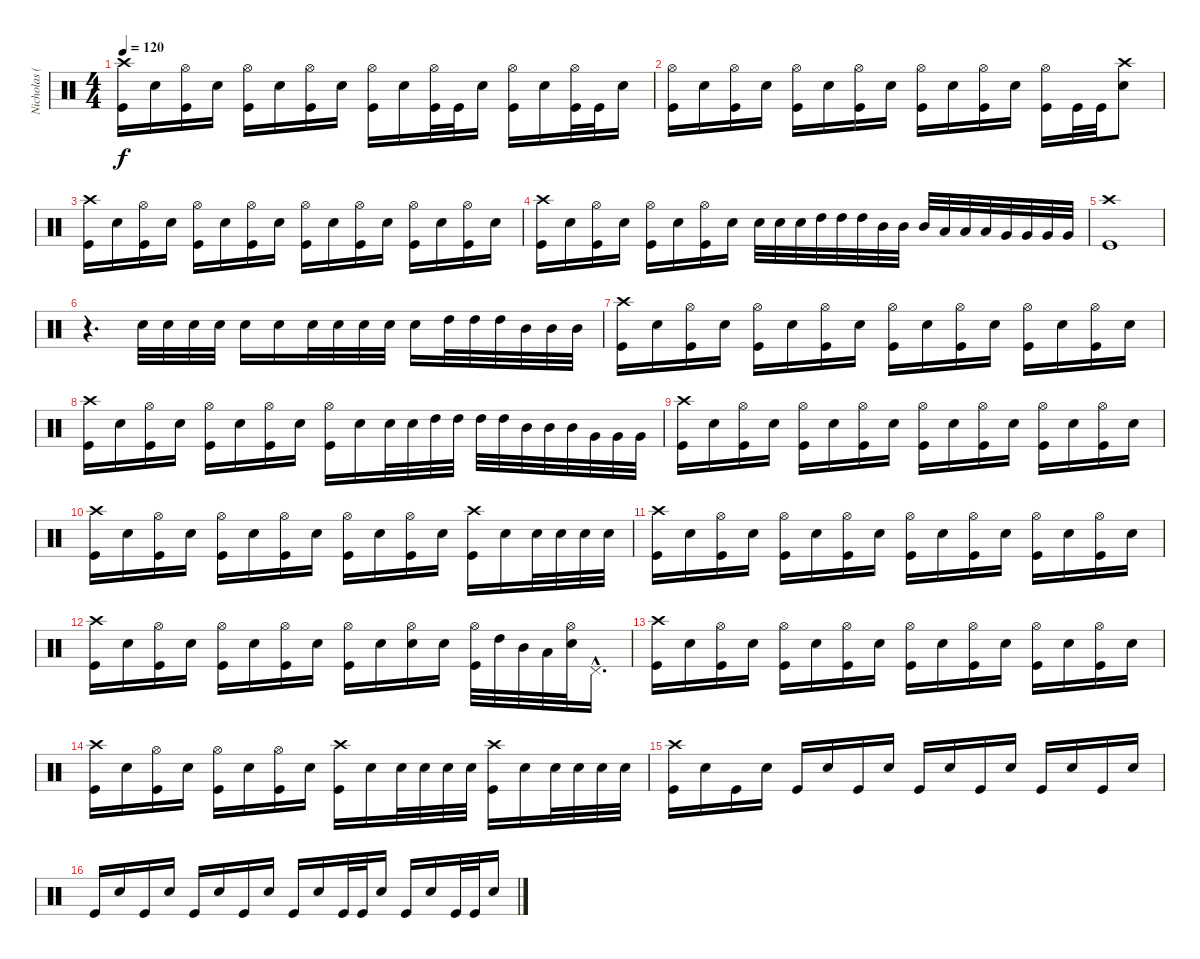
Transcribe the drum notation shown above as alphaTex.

\track ("Nicholas (Drums)" "Nicholas (") {instrument percussion}
\staff {score}
\articulation defaults
\ts (4 4)
\tempo 120
\clef neutral
\ks c
("Crash high (hit)" "Kick (hit)").16{dy f} "Electric Snare (hit)".16 ("Hi-Hat (open)" "Kick (hit)").16 "Electric Snare (hit)".16 ("Hi-Hat (open)" "Kick (hit)").16 "Electric Snare (hit)".16 ("Hi-Hat (open)" "Kick (hit)").16 "Electric Snare (hit)".16 ("Hi-Hat (open)" "Kick (hit)").16 "Electric Snare (hit)".16 ("Hi-Hat (open)" "Kick (hit)").32 "Kick (hit)".32 "Electric Snare (hit)".16 ("Hi-Hat (open)" "Kick (hit)").16 "Electric Snare (hit)".16 ("Hi-Hat (open)" "Kick (hit)").32 "Kick (hit)".32 "Electric Snare (hit)".16 |
("Hi-Hat (open)" "Kick (hit)").16 "Electric Snare (hit)".16 ("Hi-Hat (open)" "Kick (hit)").16 "Electric Snare (hit)".16 ("Hi-Hat (open)" "Kick (hit)").16 "Electric Snare (hit)".16 ("Hi-Hat (open)" "Kick (hit)").16 "Electric Snare (hit)".16 ("Hi-Hat (open)" "Kick (hit)").16 "Electric Snare (hit)".16 ("Hi-Hat (open)" "Kick (hit)").16 "Electric Snare (hit)".16 ("Hi-Hat (open)" "Kick (hit)").16 "Kick (hit)".32 "Kick (hit)".32 ("Crash high (hit)" "Electric Snare (hit)").8 |
("Crash high (hit)" "Kick (hit)").16 "Electric Snare (hit)".16 ("Hi-Hat (open)" "Kick (hit)").16 "Electric Snare (hit)".16 ("Hi-Hat (open)" "Kick (hit)").16 "Electric Snare (hit)".16 ("Hi-Hat (open)" "Kick (hit)").16 "Electric Snare (hit)".16 ("Hi-Hat (open)" "Kick (hit)").16 "Electric Snare (hit)".16 ("Hi-Hat (open)" "Kick (hit)").16 "Electric Snare (hit)".16 ("Hi-Hat (open)" "Kick (hit)").16 "Electric Snare (hit)".16 ("Hi-Hat (open)" "Kick (hit)").16 "Electric Snare (hit)".16 |
("Crash high (hit)" "Kick (hit)").16 "Electric Snare (hit)".16 ("Hi-Hat (open)" "Kick (hit)").16 "Electric Snare (hit)".16 ("Hi-Hat (open)" "Kick (hit)").16 "Electric Snare (hit)".16 ("Hi-Hat (open)" "Kick (hit)").16 "Electric Snare (hit)".16 "Electric Snare (hit)".32 "Electric Snare (hit)".32 "Electric Snare (hit)".32 "High Tom (hit)".32 "High Tom (hit)".32 "High Tom (hit)".32 "Mid Tom (hit)".32 "Mid Tom (hit)".32 "Mid Tom (hit)".32 "Low Tom (hit)".32 "Low Tom (hit)".32 "Low Tom (hit)".32 "Very Low Tom (hit)".32 "Very Low Tom (hit)".32 "Very Low Tom (hit)".32 "Very Low Tom (hit)".32 |
("Crash high (hit)" "Kick (hit)").1 |
r.4{d} "Electric Snare (hit)".32 "Electric Snare (hit)".32 "Electric Snare (hit)".32 "Electric Snare (hit)".32 "Electric Snare (hit)".16 "Electric Snare (hit)".16 "Electric Snare (hit)".32 "Electric Snare (hit)".32 "Electric Snare (hit)".32 "Electric Snare (hit)".32 "Electric Snare (hit)".16 "High Tom (hit)".32 "High Tom (hit)".32 "High Tom (hit)".32 "Mid Tom (hit)".32 "Mid Tom (hit)".32 "Mid Tom (hit)".32 |
("Crash high (hit)" "Kick (hit)").16 "Electric Snare (hit)".16 ("Hi-Hat (open)" "Kick (hit)").16 "Electric Snare (hit)".16 ("Hi-Hat (open)" "Kick (hit)").16 "Electric Snare (hit)".16 ("Hi-Hat (open)" "Kick (hit)").16 "Electric Snare (hit)".16 ("Hi-Hat (open)" "Kick (hit)").16 "Electric Snare (hit)".16 ("Hi-Hat (open)" "Kick (hit)").16 "Electric Snare (hit)".16 ("Hi-Hat (open)" "Kick (hit)").16 "Electric Snare (hit)".16 ("Hi-Hat (open)" "Kick (hit)").16 "Electric Snare (hit)".16 |
("Crash high (hit)" "Kick (hit)").16 "Electric Snare (hit)".16 ("Hi-Hat (open)" "Kick (hit)").16 "Electric Snare (hit)".16 ("Hi-Hat (open)" "Kick (hit)").16 "Electric Snare (hit)".16 ("Hi-Hat (open)" "Kick (hit)").16 "Electric Snare (hit)".16 ("Hi-Hat (open)" "Kick (hit)").16 "Electric Snare (hit)".16 "Electric Snare (hit)".32 "Electric Snare (hit)".32 "High Tom (hit)".32 "High Tom (hit)".32 "High Tom (hit)".32 "High Tom (hit)".32 "Mid Tom (hit)".32 "Mid Tom (hit)".32 "Mid Tom (hit)".32 "Very Low Tom (hit)".32 "Very Low Tom (hit)".32 "Very Low Tom (hit)".32 |
("Crash high (hit)" "Kick (hit)").16 "Electric Snare (hit)".16 ("Hi-Hat (open)" "Kick (hit)").16 "Electric Snare (hit)".16 ("Hi-Hat (open)" "Kick (hit)").16 "Electric Snare (hit)".16 ("Hi-Hat (open)" "Kick (hit)").16 "Electric Snare (hit)".16 ("Hi-Hat (open)" "Kick (hit)").16 "Electric Snare (hit)".16 ("Hi-Hat (open)" "Kick (hit)").16 "Electric Snare (hit)".16 ("Hi-Hat (open)" "Kick (hit)").16 "Electric Snare (hit)".16 ("Hi-Hat (open)" "Kick (hit)").16 "Electric Snare (hit)".16 |
("Crash high (hit)" "Kick (hit)").16 "Electric Snare (hit)".16 ("Hi-Hat (open)" "Kick (hit)").16 "Electric Snare (hit)".16 ("Hi-Hat (open)" "Kick (hit)").16 "Electric Snare (hit)".16 ("Hi-Hat (open)" "Kick (hit)").16 "Electric Snare (hit)".16 ("Hi-Hat (open)" "Kick (hit)").16 "Electric Snare (hit)".16 ("Hi-Hat (open)" "Kick (hit)").16 "Electric Snare (hit)".16 ("Crash high (hit)" "Kick (hit)").16 "Electric Snare (hit)".16 "Electric Snare (hit)".32 "Electric Snare (hit)".32 "Electric Snare (hit)".32 "Electric Snare (hit)".32 |
("Crash high (hit)" "Kick (hit)").16 "Electric Snare (hit)".16 ("Hi-Hat (open)" "Kick (hit)").16 "Electric Snare (hit)".16 ("Hi-Hat (open)" "Kick (hit)").16 "Electric Snare (hit)".16 ("Hi-Hat (open)" "Kick (hit)").16 "Electric Snare (hit)".16 ("Hi-Hat (open)" "Kick (hit)").16 "Electric Snare (hit)".16 ("Hi-Hat (open)" "Kick (hit)").16 "Electric Snare (hit)".16 ("Hi-Hat (open)" "Kick (hit)").16 "Electric Snare (hit)".16 ("Hi-Hat (open)" "Kick (hit)").16 "Electric Snare (hit)".16 |
("Crash high (hit)" "Kick (hit)").16 "Electric Snare (hit)".16 ("Hi-Hat (open)" "Kick (hit)").16 "Electric Snare (hit)".16 ("Hi-Hat (open)" "Kick (hit)").16 "Electric Snare (hit)".16 ("Hi-Hat (open)" "Kick (hit)").16 "Electric Snare (hit)".16 ("Hi-Hat (open)" "Kick (hit)").16 "Electric Snare (hit)".16 ("Hi-Hat (open)" "Electric Snare (hit)").16 "Electric Snare (hit)".16 ("Hi-Hat (open)" "Kick (hit)").32 "High Tom (hit)".32 "Mid Tom (hit)".32 "Low Tom (hit)".32 ("Hi-Hat (open)" "Electric Snare (hit)").32 "Pedal Hi-Hat (hit)"{hac}.16{d} |
("Crash high (hit)" "Kick (hit)").16 "Electric Snare (hit)".16 ("Hi-Hat (open)" "Kick (hit)").16 "Electric Snare (hit)".16 ("Hi-Hat (open)" "Kick (hit)").16 "Electric Snare (hit)".16 ("Hi-Hat (open)" "Kick (hit)").16 "Electric Snare (hit)".16 ("Hi-Hat (open)" "Kick (hit)").16 "Electric Snare (hit)".16 ("Hi-Hat (open)" "Kick (hit)").16 "Electric Snare (hit)".16 ("Hi-Hat (open)" "Kick (hit)").16 "Electric Snare (hit)".16 ("Hi-Hat (open)" "Kick (hit)").16 "Electric Snare (hit)".16 |
("Crash high (hit)" "Kick (hit)").16 "Electric Snare (hit)".16 ("Hi-Hat (open)" "Kick (hit)").16 "Electric Snare (hit)".16 ("Hi-Hat (open)" "Kick (hit)").16 "Electric Snare (hit)".16 ("Hi-Hat (open)" "Kick (hit)").16 "Electric Snare (hit)".16 ("Crash high (hit)" "Kick (hit)").16 "Electric Snare (hit)".16 "Electric Snare (hit)".32 "Electric Snare (hit)".32 "Electric Snare (hit)".32 "Electric Snare (hit)".32 ("Crash high (hit)" "Kick (hit)").16 "Electric Snare (hit)".16 "Electric Snare (hit)".32 "Electric Snare (hit)".32 "Electric Snare (hit)".32 "Electric Snare (hit)".32 |
("Crash high (hit)" "Kick (hit)").16 "Electric Snare (hit)".16 "Kick (hit)".16 "Electric Snare (hit)".16 "Kick (hit)".16 "Electric Snare (hit)".16 "Kick (hit)".16 "Electric Snare (hit)".16 "Kick (hit)".16 "Electric Snare (hit)".16 "Kick (hit)".16 "Electric Snare (hit)".16 "Kick (hit)".16 "Electric Snare (hit)".16 "Kick (hit)".16 "Electric Snare (hit)".16 |
"Kick (hit)".16 "Electric Snare (hit)".16 "Kick (hit)".16 "Electric Snare (hit)".16 "Kick (hit)".16 "Electric Snare (hit)".16 "Kick (hit)".16 "Electric Snare (hit)".16 "Kick (hit)".16 "Electric Snare (hit)".16 "Kick (hit)".32 "Kick (hit)".32 "Electric Snare (hit)".16 "Kick (hit)".16 "Electric Snare (hit)".16 "Kick (hit)".32 "Kick (hit)".32 "Electric Snare (hit)".16
